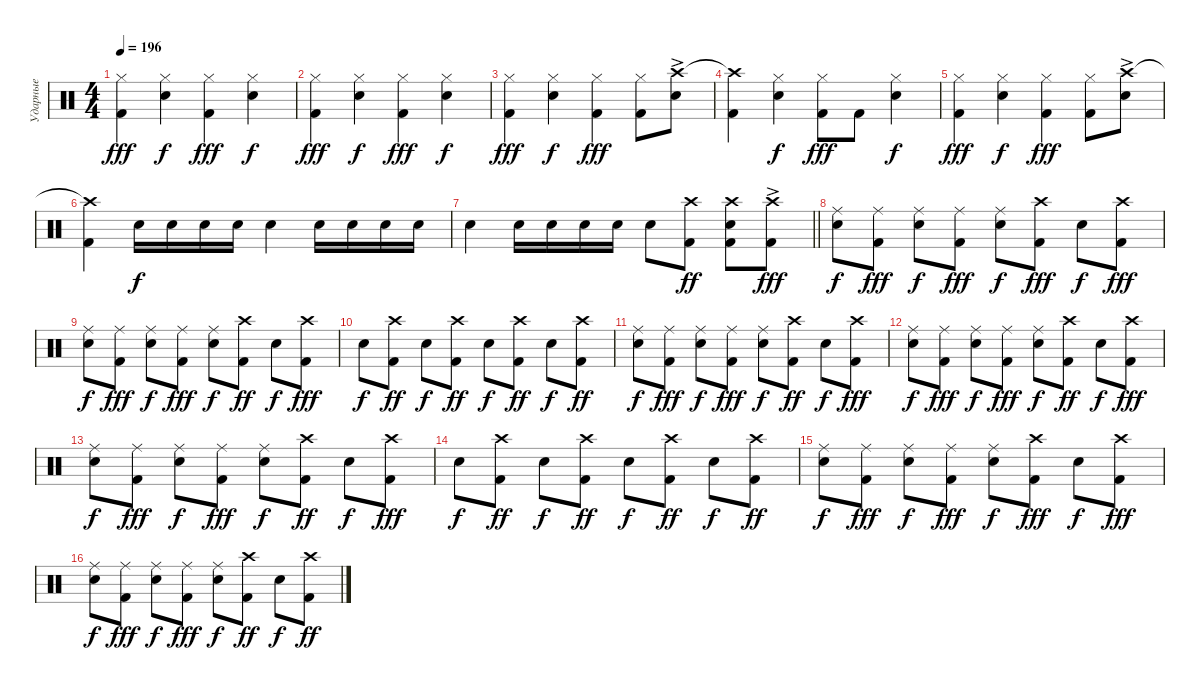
\track ("Ударные" "Ударные") {instrument percussion}
\staff {score}
\articulation defaults
\ts (4 4)
\tempo 196
\clef neutral
\ks c
("Kick (hit) 2" "Hi-Hat (closed)").4{dy fff} ("Snare (hit) 2" "Hi-Hat (closed)").4{dy f} ("Kick (hit) 2" "Hi-Hat (closed)").4{dy fff} ("Snare (hit) 2" "Hi-Hat (closed)").4{dy f} |
("Kick (hit) 2" "Hi-Hat (closed)").4{dy fff} ("Snare (hit) 2" "Hi-Hat (closed)").4{dy f} ("Kick (hit) 2" "Hi-Hat (closed)").4{dy fff} ("Snare (hit) 2" "Hi-Hat (closed)").4{dy f} |
("Kick (hit) 2" "Hi-Hat (closed)").4{dy fff} ("Snare (hit) 2" "Hi-Hat (closed)").4{dy f} ("Kick (hit) 2" "Hi-Hat (closed)").4{dy fff} ("Kick (hit) 2" "Hi-Hat (closed)").8 ("Snare (hit) 2" "Crash high (hit)"{ac}).8 |
("Kick (hit) 2" "Crash high (hit)"{t}).4 ("Snare (hit) 2" "Hi-Hat (closed)").4{dy f} ("Kick (hit) 2" "Hi-Hat (closed)").8{dy fff} "Kick (hit) 2".8 ("Snare (hit) 2" "Hi-Hat (closed)").4{dy f} |
("Kick (hit) 2" "Hi-Hat (closed)").4{dy fff} ("Snare (hit) 2" "Hi-Hat (closed)").4{dy f} ("Kick (hit) 2" "Hi-Hat (closed)").4{dy fff} ("Kick (hit) 2" "Hi-Hat (closed)").8 ("Snare (hit) 2" "Crash high (hit)"{ac}).8 |
("Kick (hit) 2" "Crash high (hit)"{t}).4 "Snare (hit) 2".16{dy f} "Snare (hit) 2".16 "Snare (hit) 2".16 "Snare (hit) 2".16 "Snare (hit) 2".4 "Snare (hit) 2".16 "Snare (hit) 2".16 "Snare (hit) 2".16 "Snare (hit) 2".16 |
\barLineRight lightlight "Snare (hit) 2".4 "Snare (hit) 2".16 "Snare (hit) 2".16 "Snare (hit) 2".16 "Snare (hit) 2".16 "Snare (hit) 2".8
("Kick (hit) 2" "Crash high (hit)").8{dy ff} ("Kick (hit) 2" "Snare (hit) 2" "Crash high (hit)").8 ("Kick (hit) 2" "Crash high (hit)"{ac}).8{dy fff} |
("Snare (hit) 2" "Ride (middle)").8{dy f} ("Kick (hit) 2" "Ride (middle)").8{dy fff} ("Snare (hit) 2" "Ride (middle)").8{dy f} ("Kick (hit) 2" "Ride (middle)").8{dy fff} ("Snare (hit) 2" "Ride (middle)").8{dy f} ("Kick (hit) 2" "Crash high (hit)").8{dy fff} "Snare (hit) 2".8{dy f} ("Kick (hit) 2" "Crash high (hit)").8{dy fff} |
("Snare (hit) 2" "Ride (middle)").8{dy f} ("Kick (hit) 2" "Ride (middle)").8{dy fff} ("Snare (hit) 2" "Ride (middle)").8{dy f} ("Kick (hit) 2" "Ride (middle)").8{dy fff} ("Snare (hit) 2" "Ride (middle)").8{dy f} ("Kick (hit) 2" "Crash high (hit)").8{dy ff} "Snare (hit) 2".8{dy f} ("Kick (hit) 2" "Crash high (hit)").8{dy fff} |
"Snare (hit) 2".8{dy f} ("Kick (hit) 2" "Crash high (hit)").8{dy ff} "Snare (hit) 2".8{dy f} ("Kick (hit) 2" "Crash high (hit)").8{dy ff} "Snare (hit) 2".8{dy f} ("Kick (hit) 2" "Crash high (hit)").8{dy ff} "Snare (hit) 2".8{dy f} ("Kick (hit) 2" "Crash high (hit)").8{dy ff} |
("Snare (hit) 2" "Ride (middle)").8{dy f} ("Kick (hit) 2" "Ride (middle)").8{dy fff} ("Snare (hit) 2" "Ride (middle)").8{dy f} ("Kick (hit) 2" "Ride (middle)").8{dy fff} ("Snare (hit) 2" "Ride (middle)").8{dy f} ("Kick (hit) 2" "Crash high (hit)").8{dy ff} "Snare (hit) 2".8{dy f} ("Kick (hit) 2" "Crash high (hit)").8{dy fff} |
("Snare (hit) 2" "Ride (middle)").8{dy f} ("Kick (hit) 2" "Ride (middle)").8{dy fff} ("Snare (hit) 2" "Ride (middle)").8{dy f} ("Kick (hit) 2" "Ride (middle)").8{dy fff} ("Snare (hit) 2" "Ride (middle)").8{dy f} ("Kick (hit) 2" "Crash high (hit)").8{dy ff} "Snare (hit) 2".8{dy f} ("Kick (hit) 2" "Crash high (hit)").8{dy fff} |
("Snare (hit) 2" "Ride (middle)").8{dy f} ("Kick (hit) 2" "Ride (middle)").8{dy fff} ("Snare (hit) 2" "Ride (middle)").8{dy f} ("Kick (hit) 2" "Ride (middle)").8{dy fff} ("Snare (hit) 2" "Ride (middle)").8{dy f} ("Kick (hit) 2" "Crash high (hit)").8{dy ff} "Snare (hit) 2".8{dy f} ("Kick (hit) 2" "Crash high (hit)").8{dy fff} |
"Snare (hit) 2".8{dy f} ("Kick (hit) 2" "Crash high (hit)").8{dy ff} "Snare (hit) 2".8{dy f} ("Kick (hit) 2" "Crash high (hit)").8{dy ff} "Snare (hit) 2".8{dy f} ("Kick (hit) 2" "Crash high (hit)").8{dy ff} "Snare (hit) 2".8{dy f} ("Kick (hit) 2" "Crash high (hit)").8{dy ff} |
("Snare (hit) 2" "Ride (middle)").8{dy f} ("Kick (hit) 2" "Ride (middle)").8{dy fff} ("Snare (hit) 2" "Ride (middle)").8{dy f} ("Kick (hit) 2" "Ride (middle)").8{dy fff} ("Snare (hit) 2" "Ride (middle)").8{dy f} ("Kick (hit) 2" "Crash high (hit)").8{dy fff} "Snare (hit) 2".8{dy f} ("Kick (hit) 2" "Crash high (hit)").8{dy fff} |
("Snare (hit) 2" "Ride (middle)").8{dy f} ("Kick (hit) 2" "Ride (middle)").8{dy fff} ("Snare (hit) 2" "Ride (middle)").8{dy f} ("Kick (hit) 2" "Ride (middle)").8{dy fff} ("Snare (hit) 2" "Ride (middle)").8{dy f} ("Kick (hit) 2" "Crash high (hit)").8{dy ff} "Snare (hit) 2".8{dy f} ("Kick (hit) 2" "Crash high (hit)").8{dy ff}
